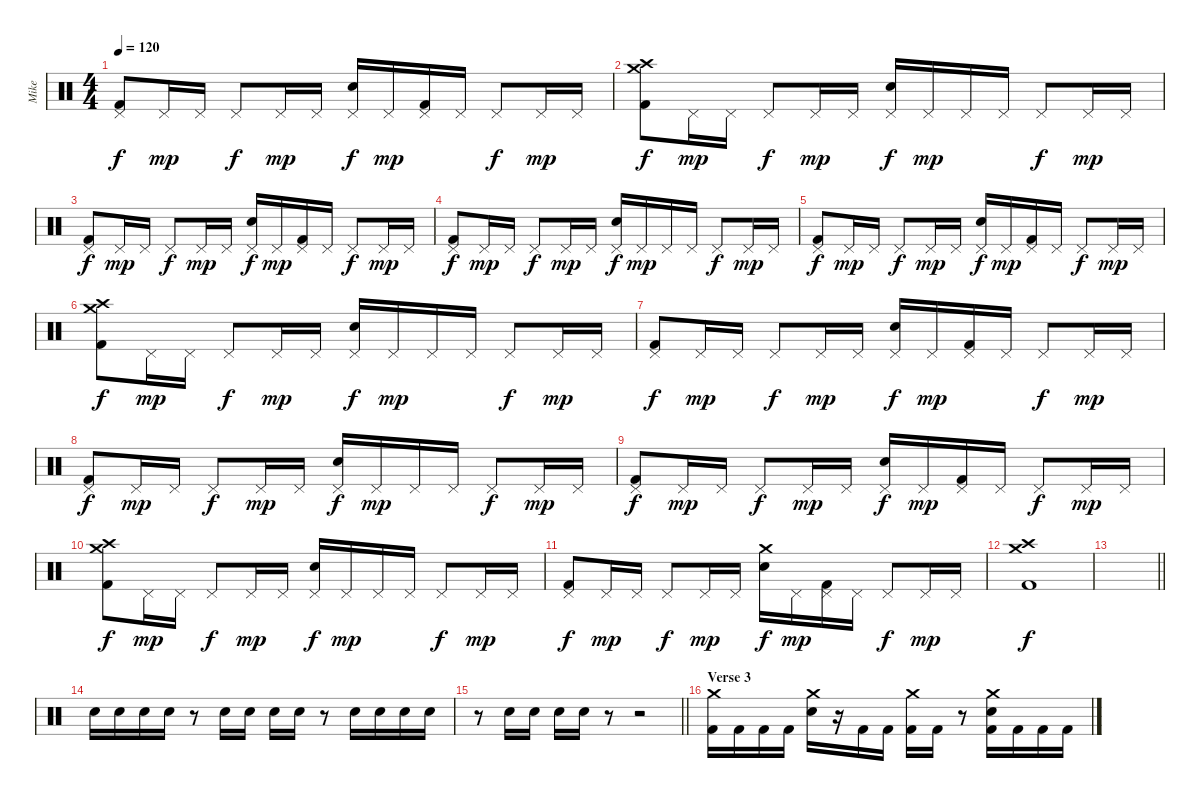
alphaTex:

\track ("Mike" "Mike") {instrument percussion}
\staff {score}
\articulation defaults
\ts (4 4)
\tempo 120
\clef neutral
\ks c
("Pedal Hi-Hat (hit)" "Kick (hit) 2").8{dy f} "Pedal Hi-Hat (hit)".16{dy mp} "Pedal Hi-Hat (hit)".16 "Pedal Hi-Hat (hit)".8{dy f} "Pedal Hi-Hat (hit)".16{dy mp} "Pedal Hi-Hat (hit)".16 ("Pedal Hi-Hat (hit)" "Snare (hit) 2").16{dy f} "Pedal Hi-Hat (hit)".16{dy mp} ("Pedal Hi-Hat (hit)" "Kick (hit) 2").16 "Pedal Hi-Hat (hit)".16 "Pedal Hi-Hat (hit)".8{dy f} "Pedal Hi-Hat (hit)".16{dy mp} "Pedal Hi-Hat (hit)".16 |
("Crash medium (hit)" "Crash high (hit)" "Kick (hit) 2").8{dy f} "Pedal Hi-Hat (hit)".16{dy mp} "Pedal Hi-Hat (hit)".16 "Pedal Hi-Hat (hit)".8{dy f} "Pedal Hi-Hat (hit)".16{dy mp} "Pedal Hi-Hat (hit)".16 ("Pedal Hi-Hat (hit)" "Snare (hit) 2").16{dy f} "Pedal Hi-Hat (hit)".16{dy mp} "Pedal Hi-Hat (hit)".16 "Pedal Hi-Hat (hit)".16 "Pedal Hi-Hat (hit)".8{dy f} "Pedal Hi-Hat (hit)".16{dy mp} "Pedal Hi-Hat (hit)".16 |
("Pedal Hi-Hat (hit)" "Kick (hit) 2").8{dy f} "Pedal Hi-Hat (hit)".16{dy mp} "Pedal Hi-Hat (hit)".16 "Pedal Hi-Hat (hit)".8{dy f} "Pedal Hi-Hat (hit)".16{dy mp} "Pedal Hi-Hat (hit)".16 ("Pedal Hi-Hat (hit)" "Snare (hit) 2").16{dy f} "Pedal Hi-Hat (hit)".16{dy mp} ("Pedal Hi-Hat (hit)" "Kick (hit) 2").16 "Pedal Hi-Hat (hit)".16 "Pedal Hi-Hat (hit)".8{dy f} "Pedal Hi-Hat (hit)".16{dy mp} "Pedal Hi-Hat (hit)".16 |
("Pedal Hi-Hat (hit)" "Kick (hit) 2").8{dy f} "Pedal Hi-Hat (hit)".16{dy mp} "Pedal Hi-Hat (hit)".16 "Pedal Hi-Hat (hit)".8{dy f} "Pedal Hi-Hat (hit)".16{dy mp} "Pedal Hi-Hat (hit)".16 ("Pedal Hi-Hat (hit)" "Snare (hit) 2").16{dy f} "Pedal Hi-Hat (hit)".16{dy mp} "Pedal Hi-Hat (hit)".16 "Pedal Hi-Hat (hit)".16 "Pedal Hi-Hat (hit)".8{dy f} "Pedal Hi-Hat (hit)".16{dy mp} "Pedal Hi-Hat (hit)".16 |
("Pedal Hi-Hat (hit)" "Kick (hit) 2").8{dy f} "Pedal Hi-Hat (hit)".16{dy mp} "Pedal Hi-Hat (hit)".16 "Pedal Hi-Hat (hit)".8{dy f} "Pedal Hi-Hat (hit)".16{dy mp} "Pedal Hi-Hat (hit)".16 ("Pedal Hi-Hat (hit)" "Snare (hit) 2").16{dy f} "Pedal Hi-Hat (hit)".16{dy mp} ("Pedal Hi-Hat (hit)" "Kick (hit) 2").16 "Pedal Hi-Hat (hit)".16 "Pedal Hi-Hat (hit)".8{dy f} "Pedal Hi-Hat (hit)".16{dy mp} "Pedal Hi-Hat (hit)".16 |
("Crash medium (hit)" "Crash high (hit)" "Kick (hit) 2").8{dy f} "Pedal Hi-Hat (hit)".16{dy mp} "Pedal Hi-Hat (hit)".16 "Pedal Hi-Hat (hit)".8{dy f} "Pedal Hi-Hat (hit)".16{dy mp} "Pedal Hi-Hat (hit)".16 ("Pedal Hi-Hat (hit)" "Snare (hit) 2").16{dy f} "Pedal Hi-Hat (hit)".16{dy mp} "Pedal Hi-Hat (hit)".16 "Pedal Hi-Hat (hit)".16 "Pedal Hi-Hat (hit)".8{dy f} "Pedal Hi-Hat (hit)".16{dy mp} "Pedal Hi-Hat (hit)".16 |
("Pedal Hi-Hat (hit)" "Kick (hit) 2").8{dy f} "Pedal Hi-Hat (hit)".16{dy mp} "Pedal Hi-Hat (hit)".16 "Pedal Hi-Hat (hit)".8{dy f} "Pedal Hi-Hat (hit)".16{dy mp} "Pedal Hi-Hat (hit)".16 ("Pedal Hi-Hat (hit)" "Snare (hit) 2").16{dy f} "Pedal Hi-Hat (hit)".16{dy mp} ("Pedal Hi-Hat (hit)" "Kick (hit) 2").16 "Pedal Hi-Hat (hit)".16 "Pedal Hi-Hat (hit)".8{dy f} "Pedal Hi-Hat (hit)".16{dy mp} "Pedal Hi-Hat (hit)".16 |
("Pedal Hi-Hat (hit)" "Kick (hit) 2").8{dy f} "Pedal Hi-Hat (hit)".16{dy mp} "Pedal Hi-Hat (hit)".16 "Pedal Hi-Hat (hit)".8{dy f} "Pedal Hi-Hat (hit)".16{dy mp} "Pedal Hi-Hat (hit)".16 ("Pedal Hi-Hat (hit)" "Snare (hit) 2").16{dy f} "Pedal Hi-Hat (hit)".16{dy mp} "Pedal Hi-Hat (hit)".16 "Pedal Hi-Hat (hit)".16 "Pedal Hi-Hat (hit)".8{dy f} "Pedal Hi-Hat (hit)".16{dy mp} "Pedal Hi-Hat (hit)".16 |
("Pedal Hi-Hat (hit)" "Kick (hit) 2").8{dy f} "Pedal Hi-Hat (hit)".16{dy mp} "Pedal Hi-Hat (hit)".16 "Pedal Hi-Hat (hit)".8{dy f} "Pedal Hi-Hat (hit)".16{dy mp} "Pedal Hi-Hat (hit)".16 ("Pedal Hi-Hat (hit)" "Snare (hit) 2").16{dy f} "Pedal Hi-Hat (hit)".16{dy mp} ("Pedal Hi-Hat (hit)" "Kick (hit) 2").16 "Pedal Hi-Hat (hit)".16 "Pedal Hi-Hat (hit)".8{dy f} "Pedal Hi-Hat (hit)".16{dy mp} "Pedal Hi-Hat (hit)".16 |
("Crash medium (hit)" "Crash high (hit)" "Kick (hit) 2").8{dy f} "Pedal Hi-Hat (hit)".16{dy mp} "Pedal Hi-Hat (hit)".16 "Pedal Hi-Hat (hit)".8{dy f} "Pedal Hi-Hat (hit)".16{dy mp} "Pedal Hi-Hat (hit)".16 ("Pedal Hi-Hat (hit)" "Snare (hit) 2").16{dy f} "Pedal Hi-Hat (hit)".16{dy mp} "Pedal Hi-Hat (hit)".16 "Pedal Hi-Hat (hit)".16 "Pedal Hi-Hat (hit)".8{dy f} "Pedal Hi-Hat (hit)".16{dy mp} "Pedal Hi-Hat (hit)".16 |
("Pedal Hi-Hat (hit)" "Kick (hit) 2").8{dy f} "Pedal Hi-Hat (hit)".16{dy mp} "Pedal Hi-Hat (hit)".16 "Pedal Hi-Hat (hit)".8{dy f} "Pedal Hi-Hat (hit)".16{dy mp} "Pedal Hi-Hat (hit)".16 ("Crash medium (hit)" "Snare (hit) 2").16{dy f} "Pedal Hi-Hat (hit)".16{dy mp} ("Pedal Hi-Hat (hit)" "Kick (hit) 2").16 "Pedal Hi-Hat (hit)".16 "Pedal Hi-Hat (hit)".8{dy f} "Pedal Hi-Hat (hit)".16{dy mp} "Pedal Hi-Hat (hit)".16 |
("Crash medium (hit)" "Crash high (hit)" "Kick (hit) 2").1{dy f} |
\barLineRight lightlight
|
"Snare (hit) 2".16 "Snare (hit) 2".16 "Snare (hit) 2".16 "Snare (hit) 2".16 r.8 "Snare (hit) 2".16 "Snare (hit) 2".16 "Snare (hit) 2".16 "Snare (hit) 2".16 r.8 "Snare (hit) 2".16 "Snare (hit) 2".16 "Snare (hit) 2".16 "Snare (hit) 2".16 |
\barLineRight lightlight
r.8 "Snare (hit) 2".16 "Snare (hit) 2".16 "Snare (hit) 2".16 "Snare (hit) 2".16 r.8 r.2 |
\section ("" "Verse 3")
("Crash medium (hit)" "Kick (hit) 2").16 "Kick (hit) 2".16 "Kick (hit) 2".16 "Kick (hit) 2".16 ("Crash medium (hit)" "Snare (hit) 2").16 r.16 "Kick (hit) 2".16 "Kick (hit) 2".16 ("Crash medium (hit)" "Kick (hit) 2").16 "Kick (hit) 2".16 r.8 ("Crash medium (hit)" "Snare (hit) 2" "Kick (hit) 2").16 "Kick (hit) 2".16 "Kick (hit) 2".16 "Kick (hit) 2".16
